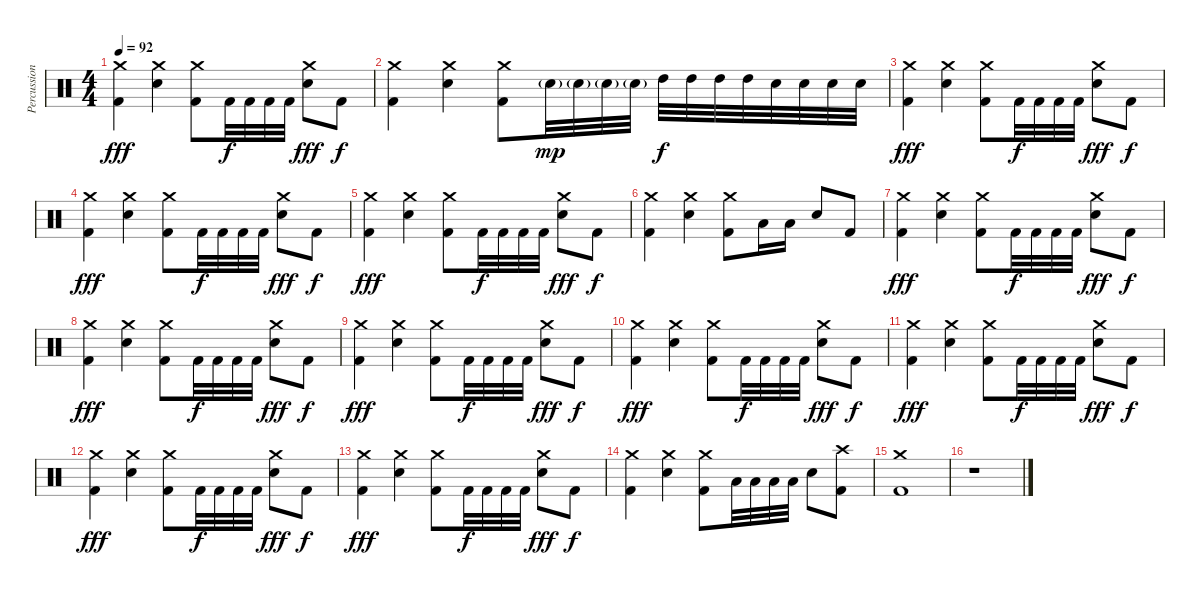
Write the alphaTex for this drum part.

\track ("Percussion" "Percussion") {instrument percussion}
\staff {score}
\articulation defaults
\ts (4 4)
\tempo 92
\clef neutral
\ks c
("Crash medium (hit)" "Kick (hit) 2").4{dy fff} ("Crash medium (hit)" "Electric Snare (hit)").4 ("Crash medium (hit)" "Kick (hit) 2").8 "Kick (hit) 2".32{dy f} "Kick (hit) 2".32 "Kick (hit) 2".32 "Kick (hit) 2".32 ("Crash medium (hit)" "Electric Snare (hit)").8{dy fff} "Kick (hit) 2".8{dy f} |
("Crash medium (hit)" "Kick (hit) 2").4 ("Crash medium (hit)" "Electric Snare (hit)").4 ("Crash medium (hit)" "Kick (hit) 2").8 "Electric Snare (hit)"{g}.32{dy mp} "Electric Snare (hit)"{g}.32 "Electric Snare (hit)"{g}.32 "Electric Snare (hit)"{g}.32 "High Tom (hit)".32{dy f} "High Tom (hit)".32 "High Tom (hit)".32 "High Tom (hit)".32 "Electric Snare (hit)".32 "Electric Snare (hit)".32 "Electric Snare (hit)".32 "Electric Snare (hit)".32 |
("Crash medium (hit)" "Kick (hit) 2").4{dy fff} ("Crash medium (hit)" "Electric Snare (hit)").4 ("Crash medium (hit)" "Kick (hit) 2").8 "Kick (hit) 2".32{dy f} "Kick (hit) 2".32 "Kick (hit) 2".32 "Kick (hit) 2".32 ("Crash medium (hit)" "Electric Snare (hit)").8{dy fff} "Kick (hit) 2".8{dy f} |
("Crash medium (hit)" "Kick (hit) 2").4{dy fff} ("Crash medium (hit)" "Electric Snare (hit)").4 ("Crash medium (hit)" "Kick (hit) 2").8 "Kick (hit) 2".32{dy f} "Kick (hit) 2".32 "Kick (hit) 2".32 "Kick (hit) 2".32 ("Crash medium (hit)" "Electric Snare (hit)").8{dy fff} "Kick (hit) 2".8{dy f} |
("Crash medium (hit)" "Kick (hit) 2").4{dy fff} ("Crash medium (hit)" "Electric Snare (hit)").4 ("Crash medium (hit)" "Kick (hit) 2").8 "Kick (hit) 2".32{dy f} "Kick (hit) 2".32 "Kick (hit) 2".32 "Kick (hit) 2".32 ("Crash medium (hit)" "Electric Snare (hit)").8{dy fff} "Kick (hit) 2".8{dy f} |
("Crash medium (hit)" "Kick (hit) 2").4 ("Crash medium (hit)" "Electric Snare (hit)").4 ("Crash medium (hit)" "Kick (hit) 2").8 "Low Floor Tom (hit)".16 "Low Floor Tom (hit)".16 "Electric Snare (hit)".8 "Kick (hit) 2".8 |
("Crash medium (hit)" "Kick (hit) 2").4{dy fff} ("Crash medium (hit)" "Electric Snare (hit)").4 ("Crash medium (hit)" "Kick (hit) 2").8 "Kick (hit) 2".32{dy f} "Kick (hit) 2".32 "Kick (hit) 2".32 "Kick (hit) 2".32 ("Crash medium (hit)" "Electric Snare (hit)").8{dy fff} "Kick (hit) 2".8{dy f} |
("Crash medium (hit)" "Kick (hit) 2").4{dy fff} ("Crash medium (hit)" "Electric Snare (hit)").4 ("Crash medium (hit)" "Kick (hit) 2").8 "Kick (hit) 2".32{dy f} "Kick (hit) 2".32 "Kick (hit) 2".32 "Kick (hit) 2".32 ("Crash medium (hit)" "Electric Snare (hit)").8{dy fff} "Kick (hit) 2".8{dy f} |
("Crash medium (hit)" "Kick (hit) 2").4{dy fff} ("Crash medium (hit)" "Electric Snare (hit)").4 ("Crash medium (hit)" "Kick (hit) 2").8 "Kick (hit) 2".32{dy f} "Kick (hit) 2".32 "Kick (hit) 2".32 "Kick (hit) 2".32 ("Crash medium (hit)" "Electric Snare (hit)").8{dy fff} "Kick (hit) 2".8{dy f} |
("Crash medium (hit)" "Kick (hit) 2").4{dy fff} ("Crash medium (hit)" "Electric Snare (hit)").4 ("Crash medium (hit)" "Kick (hit) 2").8 "Kick (hit) 2".32{dy f} "Kick (hit) 2".32 "Kick (hit) 2".32 "Kick (hit) 2".32 ("Crash medium (hit)" "Electric Snare (hit)").8{dy fff} "Kick (hit) 2".8{dy f} |
("Crash medium (hit)" "Kick (hit) 2").4{dy fff} ("Crash medium (hit)" "Electric Snare (hit)").4 ("Crash medium (hit)" "Kick (hit) 2").8 "Kick (hit) 2".32{dy f} "Kick (hit) 2".32 "Kick (hit) 2".32 "Kick (hit) 2".32 ("Crash medium (hit)" "Electric Snare (hit)").8{dy fff} "Kick (hit) 2".8{dy f} |
("Crash medium (hit)" "Kick (hit) 2").4{dy fff} ("Crash medium (hit)" "Electric Snare (hit)").4 ("Crash medium (hit)" "Kick (hit) 2").8 "Kick (hit) 2".32{dy f} "Kick (hit) 2".32 "Kick (hit) 2".32 "Kick (hit) 2".32 ("Crash medium (hit)" "Electric Snare (hit)").8{dy fff} "Kick (hit) 2".8{dy f} |
("Crash medium (hit)" "Kick (hit) 2").4{dy fff} ("Crash medium (hit)" "Electric Snare (hit)").4 ("Crash medium (hit)" "Kick (hit) 2").8 "Kick (hit) 2".32{dy f} "Kick (hit) 2".32 "Kick (hit) 2".32 "Kick (hit) 2".32 ("Crash medium (hit)" "Electric Snare (hit)").8{dy fff} "Kick (hit) 2".8{dy f} |
("Crash medium (hit)" "Kick (hit) 2").4 ("Crash medium (hit)" "Electric Snare (hit)").4 ("Crash medium (hit)" "Kick (hit) 2").8 "Low Floor Tom (hit)".32 "Low Floor Tom (hit)".32 "Low Floor Tom (hit)".32 "Low Floor Tom (hit)".32 "Electric Snare (hit)".8 ("Crash high (hit)" "Kick (hit) 2").8 |
("Crash medium (hit)" "Kick (hit) 2").1 |
r.1
